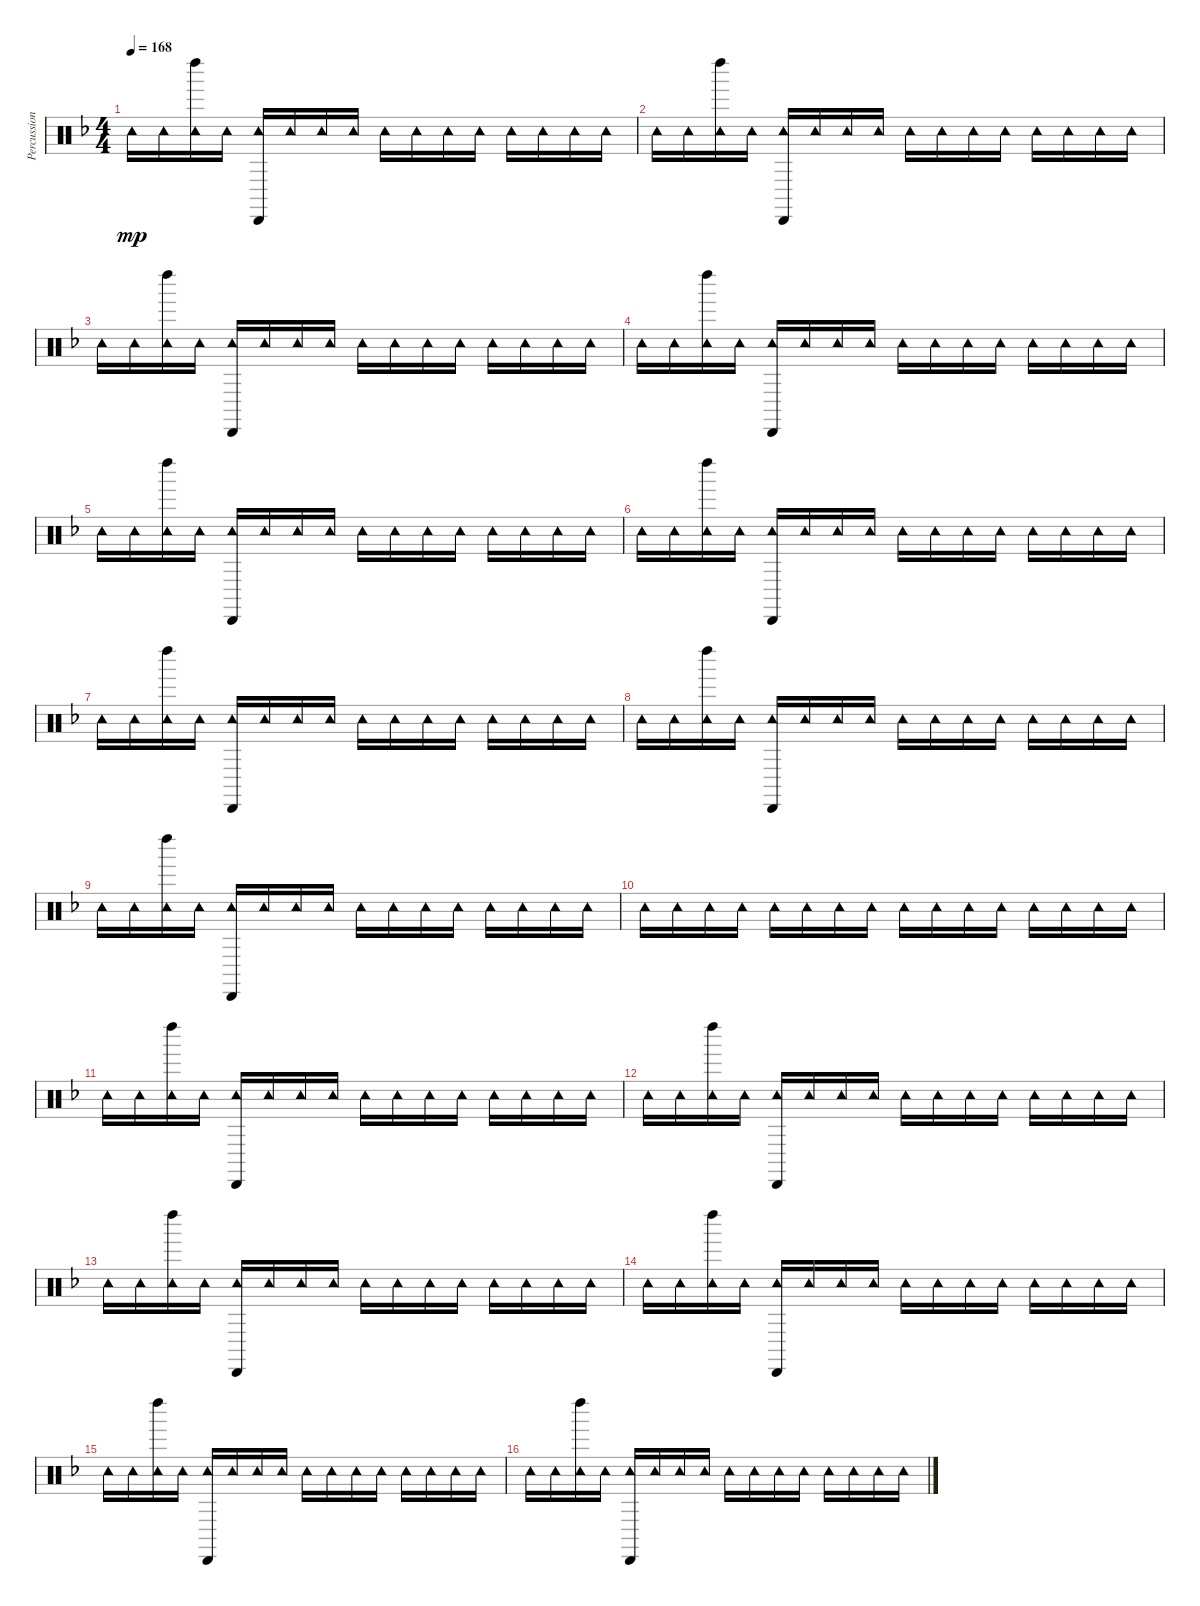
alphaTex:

\track ("Percussions" "Percussion") {instrument percussion}
\staff {score}
\articulation defaults
\ts (4 4)
\tempo 168
\clef neutral
\ks f "Tambourine (hit)".16{dy mp} "Tambourine (hit)".16
("Left Maraca (hit)" "Tambourine (hit)").16 "Tambourine (hit)".16 ("Cabasa (hit)" "Tambourine (hit)").16 "Tambourine (hit)".16 "Tambourine (hit)".16 "Tambourine (hit)".16 "Tambourine (hit)".16 "Tambourine (hit)".16 "Tambourine (hit)".16 "Tambourine (hit)".16 "Tambourine (hit)".16 "Tambourine (hit)".16 "Tambourine (hit)".16 "Tambourine (hit)".16 |
"Tambourine (hit)".16 "Tambourine (hit)".16 ("Left Maraca (hit)" "Tambourine (hit)").16 "Tambourine (hit)".16 ("Cabasa (hit)" "Tambourine (hit)").16 "Tambourine (hit)".16 "Tambourine (hit)".16 "Tambourine (hit)".16 "Tambourine (hit)".16 "Tambourine (hit)".16 "Tambourine (hit)".16 "Tambourine (hit)".16 "Tambourine (hit)".16 "Tambourine (hit)".16 "Tambourine (hit)".16 "Tambourine (hit)".16 |
"Tambourine (hit)".16 "Tambourine (hit)".16 ("Left Maraca (hit)" "Tambourine (hit)").16 "Tambourine (hit)".16 ("Cabasa (hit)" "Tambourine (hit)").16 "Tambourine (hit)".16 "Tambourine (hit)".16 "Tambourine (hit)".16 "Tambourine (hit)".16 "Tambourine (hit)".16 "Tambourine (hit)".16 "Tambourine (hit)".16 "Tambourine (hit)".16 "Tambourine (hit)".16 "Tambourine (hit)".16 "Tambourine (hit)".16 |
"Tambourine (hit)".16 "Tambourine (hit)".16 ("Left Maraca (hit)" "Tambourine (hit)").16 "Tambourine (hit)".16 ("Cabasa (hit)" "Tambourine (hit)").16 "Tambourine (hit)".16 "Tambourine (hit)".16 "Tambourine (hit)".16 "Tambourine (hit)".16 "Tambourine (hit)".16 "Tambourine (hit)".16 "Tambourine (hit)".16 "Tambourine (hit)".16 "Tambourine (hit)".16 "Tambourine (hit)".16 "Tambourine (hit)".16 |
"Tambourine (hit)".16 "Tambourine (hit)".16 ("Left Maraca (hit)" "Tambourine (hit)").16 "Tambourine (hit)".16 ("Cabasa (hit)" "Tambourine (hit)").16 "Tambourine (hit)".16 "Tambourine (hit)".16 "Tambourine (hit)".16 "Tambourine (hit)".16 "Tambourine (hit)".16 "Tambourine (hit)".16 "Tambourine (hit)".16 "Tambourine (hit)".16 "Tambourine (hit)".16 "Tambourine (hit)".16 "Tambourine (hit)".16 |
"Tambourine (hit)".16 "Tambourine (hit)".16 ("Left Maraca (hit)" "Tambourine (hit)").16 "Tambourine (hit)".16 ("Cabasa (hit)" "Tambourine (hit)").16 "Tambourine (hit)".16 "Tambourine (hit)".16 "Tambourine (hit)".16 "Tambourine (hit)".16 "Tambourine (hit)".16 "Tambourine (hit)".16 "Tambourine (hit)".16 "Tambourine (hit)".16 "Tambourine (hit)".16 "Tambourine (hit)".16 "Tambourine (hit)".16 |
"Tambourine (hit)".16 "Tambourine (hit)".16 ("Left Maraca (hit)" "Tambourine (hit)").16 "Tambourine (hit)".16 ("Cabasa (hit)" "Tambourine (hit)").16 "Tambourine (hit)".16 "Tambourine (hit)".16 "Tambourine (hit)".16 "Tambourine (hit)".16 "Tambourine (hit)".16 "Tambourine (hit)".16 "Tambourine (hit)".16 "Tambourine (hit)".16 "Tambourine (hit)".16 "Tambourine (hit)".16 "Tambourine (hit)".16 |
"Tambourine (hit)".16 "Tambourine (hit)".16 ("Left Maraca (hit)" "Tambourine (hit)").16 "Tambourine (hit)".16 ("Cabasa (hit)" "Tambourine (hit)").16 "Tambourine (hit)".16 "Tambourine (hit)".16 "Tambourine (hit)".16 "Tambourine (hit)".16 "Tambourine (hit)".16 "Tambourine (hit)".16 "Tambourine (hit)".16 "Tambourine (hit)".16 "Tambourine (hit)".16 "Tambourine (hit)".16 "Tambourine (hit)".16 |
"Tambourine (hit)".16 "Tambourine (hit)".16 ("Left Maraca (hit)" "Tambourine (hit)").16 "Tambourine (hit)".16 ("Cabasa (hit)" "Tambourine (hit)").16 "Tambourine (hit)".16 "Tambourine (hit)".16 "Tambourine (hit)".16 "Tambourine (hit)".16 "Tambourine (hit)".16 "Tambourine (hit)".16 "Tambourine (hit)".16 "Tambourine (hit)".16 "Tambourine (hit)".16 "Tambourine (hit)".16 "Tambourine (hit)".16 |
"Tambourine (hit)".16 "Tambourine (hit)".16 "Tambourine (hit)".16 "Tambourine (hit)".16 "Tambourine (hit)".16 "Tambourine (hit)".16 "Tambourine (hit)".16 "Tambourine (hit)".16 "Tambourine (hit)".16 "Tambourine (hit)".16 "Tambourine (hit)".16 "Tambourine (hit)".16 "Tambourine (hit)".16 "Tambourine (hit)".16 "Tambourine (hit)".16 "Tambourine (hit)".16 |
"Tambourine (hit)".16 "Tambourine (hit)".16 ("Left Maraca (hit)" "Tambourine (hit)").16 "Tambourine (hit)".16 ("Cabasa (hit)" "Tambourine (hit)").16 "Tambourine (hit)".16 "Tambourine (hit)".16 "Tambourine (hit)".16 "Tambourine (hit)".16 "Tambourine (hit)".16 "Tambourine (hit)".16 "Tambourine (hit)".16 "Tambourine (hit)".16 "Tambourine (hit)".16 "Tambourine (hit)".16 "Tambourine (hit)".16 |
"Tambourine (hit)".16 "Tambourine (hit)".16 ("Left Maraca (hit)" "Tambourine (hit)").16 "Tambourine (hit)".16 ("Cabasa (hit)" "Tambourine (hit)").16 "Tambourine (hit)".16 "Tambourine (hit)".16 "Tambourine (hit)".16 "Tambourine (hit)".16 "Tambourine (hit)".16 "Tambourine (hit)".16 "Tambourine (hit)".16 "Tambourine (hit)".16 "Tambourine (hit)".16 "Tambourine (hit)".16 "Tambourine (hit)".16 |
"Tambourine (hit)".16 "Tambourine (hit)".16 ("Left Maraca (hit)" "Tambourine (hit)").16 "Tambourine (hit)".16 ("Cabasa (hit)" "Tambourine (hit)").16 "Tambourine (hit)".16 "Tambourine (hit)".16 "Tambourine (hit)".16 "Tambourine (hit)".16 "Tambourine (hit)".16 "Tambourine (hit)".16 "Tambourine (hit)".16 "Tambourine (hit)".16 "Tambourine (hit)".16 "Tambourine (hit)".16 "Tambourine (hit)".16 |
"Tambourine (hit)".16 "Tambourine (hit)".16 ("Left Maraca (hit)" "Tambourine (hit)").16 "Tambourine (hit)".16 ("Cabasa (hit)" "Tambourine (hit)").16 "Tambourine (hit)".16 "Tambourine (hit)".16 "Tambourine (hit)".16 "Tambourine (hit)".16 "Tambourine (hit)".16 "Tambourine (hit)".16 "Tambourine (hit)".16 "Tambourine (hit)".16 "Tambourine (hit)".16 "Tambourine (hit)".16 "Tambourine (hit)".16 |
"Tambourine (hit)".16 "Tambourine (hit)".16 ("Left Maraca (hit)" "Tambourine (hit)").16 "Tambourine (hit)".16 ("Cabasa (hit)" "Tambourine (hit)").16 "Tambourine (hit)".16 "Tambourine (hit)".16 "Tambourine (hit)".16 "Tambourine (hit)".16 "Tambourine (hit)".16 "Tambourine (hit)".16 "Tambourine (hit)".16 "Tambourine (hit)".16 "Tambourine (hit)".16 "Tambourine (hit)".16 "Tambourine (hit)".16 |
"Tambourine (hit)".16 "Tambourine (hit)".16 ("Left Maraca (hit)" "Tambourine (hit)").16 "Tambourine (hit)".16 ("Cabasa (hit)" "Tambourine (hit)").16 "Tambourine (hit)".16 "Tambourine (hit)".16 "Tambourine (hit)".16 "Tambourine (hit)".16 "Tambourine (hit)".16 "Tambourine (hit)".16 "Tambourine (hit)".16 "Tambourine (hit)".16 "Tambourine (hit)".16 "Tambourine (hit)".16 "Tambourine (hit)".16
